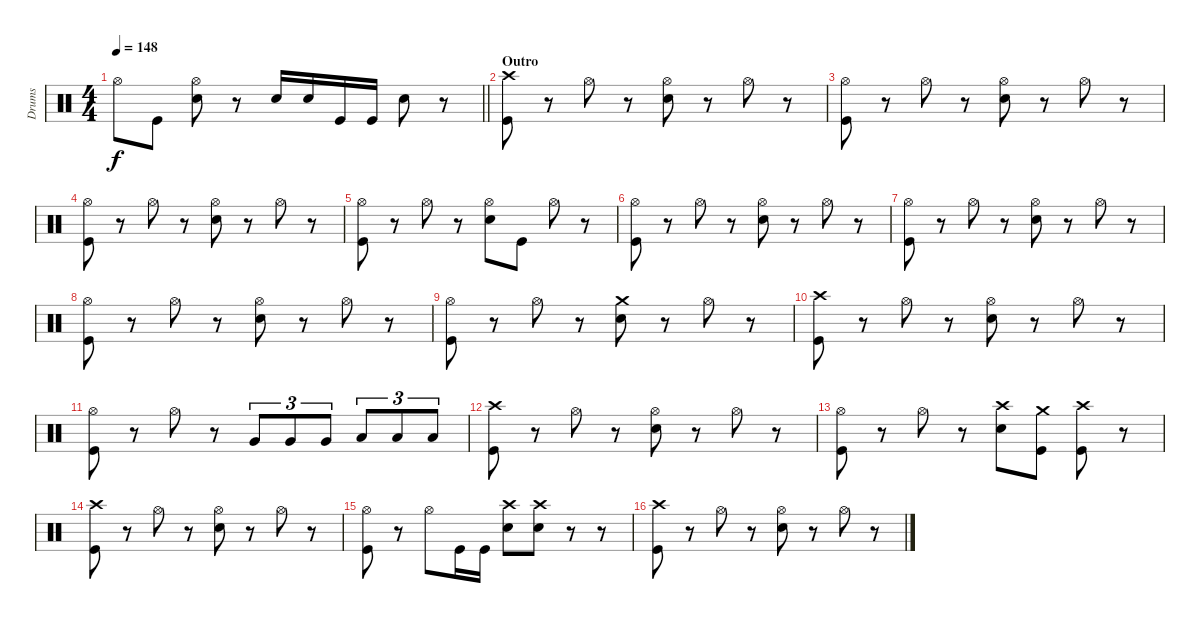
\track ("Drums" "Drums") {instrument percussion}
\staff {score}
\articulation defaults
\ts (4 4)
\tempo 148
\clef neutral
\barLineRight lightlight
\ks c "Hi-Hat (open)".8{dy f} "Kick (hit)".8
("Hi-Hat (open)" "Snare (hit) 2").8 r.8 "Snare (hit) 2".16 "Snare (hit) 2".16 "Kick (hit)".16 "Kick (hit)".16 "Snare (hit) 2".8 r.8 |
\section ("" "Outro")
("Crash high (hit)" "Kick (hit)").8 r.8 "Hi-Hat (open)".8 r.8 ("Hi-Hat (open)" "Snare (hit) 2").8 r.8 "Hi-Hat (open)".8 r.8 |
("Hi-Hat (open)" "Kick (hit)").8 r.8 "Hi-Hat (open)".8 r.8 ("Hi-Hat (open)" "Snare (hit) 2").8 r.8 "Hi-Hat (open)".8 r.8 |
("Hi-Hat (open)" "Kick (hit)").8 r.8 "Hi-Hat (open)".8 r.8 ("Hi-Hat (open)" "Snare (hit) 2").8 r.8 "Hi-Hat (open)".8 r.8 |
("Hi-Hat (open)" "Kick (hit)").8 r.8 "Hi-Hat (open)".8 r.8 ("Hi-Hat (open)" "Snare (hit) 2").8 "Kick (hit)".8 "Hi-Hat (open)".8 r.8 |
("Hi-Hat (open)" "Kick (hit)").8 r.8 "Hi-Hat (open)".8 r.8 ("Hi-Hat (open)" "Snare (hit) 2").8 r.8 "Hi-Hat (open)".8 r.8 |
("Hi-Hat (open)" "Kick (hit)").8 r.8 "Hi-Hat (open)".8 r.8 ("Hi-Hat (open)" "Snare (hit) 2").8 r.8 "Hi-Hat (open)".8 r.8 |
("Hi-Hat (open)" "Kick (hit)").8 r.8 "Hi-Hat (open)".8 r.8 ("Hi-Hat (open)" "Snare (hit) 2").8 r.8 "Hi-Hat (open)".8 r.8 |
("Hi-Hat (open)" "Kick (hit)").8 r.8 "Hi-Hat (open)".8 r.8 ("Crash medium (hit)" "Snare (hit) 2").8 r.8 "Hi-Hat (open)".8 r.8 |
("Crash high (hit)" "Kick (hit)").8 r.8 "Hi-Hat (open)".8 r.8 ("Hi-Hat (open)" "Snare (hit) 2").8 r.8 "Hi-Hat (open)".8 r.8 |
("Hi-Hat (open)" "Kick (hit)").8 r.8 "Hi-Hat (open)".8 r.8 "Very Low Tom (hit)".8{tu (3 2)} "Very Low Tom (hit)".8{tu (3 2)} "Very Low Tom (hit)".8{tu (3 2)} "Low Floor Tom (hit)".8{tu (3 2)} "Low Floor Tom (hit)".8{tu (3 2)} "Low Floor Tom (hit)".8{tu (3 2)} |
("Crash high (hit)" "Kick (hit)").8 r.8 "Hi-Hat (open)".8 r.8 ("Hi-Hat (open)" "Snare (hit) 2").8 r.8 "Hi-Hat (open)".8 r.8 |
("Hi-Hat (open)" "Kick (hit)").8 r.8 "Hi-Hat (open)".8 r.8 ("Crash high (hit)" "Snare (hit) 2").8 ("Kick (hit)" "Crash medium (hit)").8 ("Crash high (hit)" "Kick (hit)").8 r.8 |
("Crash high (hit)" "Kick (hit)").8 r.8 "Hi-Hat (open)".8 r.8 ("Hi-Hat (open)" "Snare (hit) 2").8 r.8 "Hi-Hat (open)".8 r.8 |
("Hi-Hat (open)" "Kick (hit)").8 r.8 "Hi-Hat (open)".8 "Kick (hit)".16 "Kick (hit)".16 ("Snare (hit) 2" "Crash high (hit)").8 ("Snare (hit) 2" "Crash high (hit)").8 r.8 r.8 |
("Crash high (hit)" "Kick (hit)").8 r.8 "Hi-Hat (open)".8 r.8 ("Hi-Hat (open)" "Snare (hit) 2").8 r.8 "Hi-Hat (open)".8 r.8
